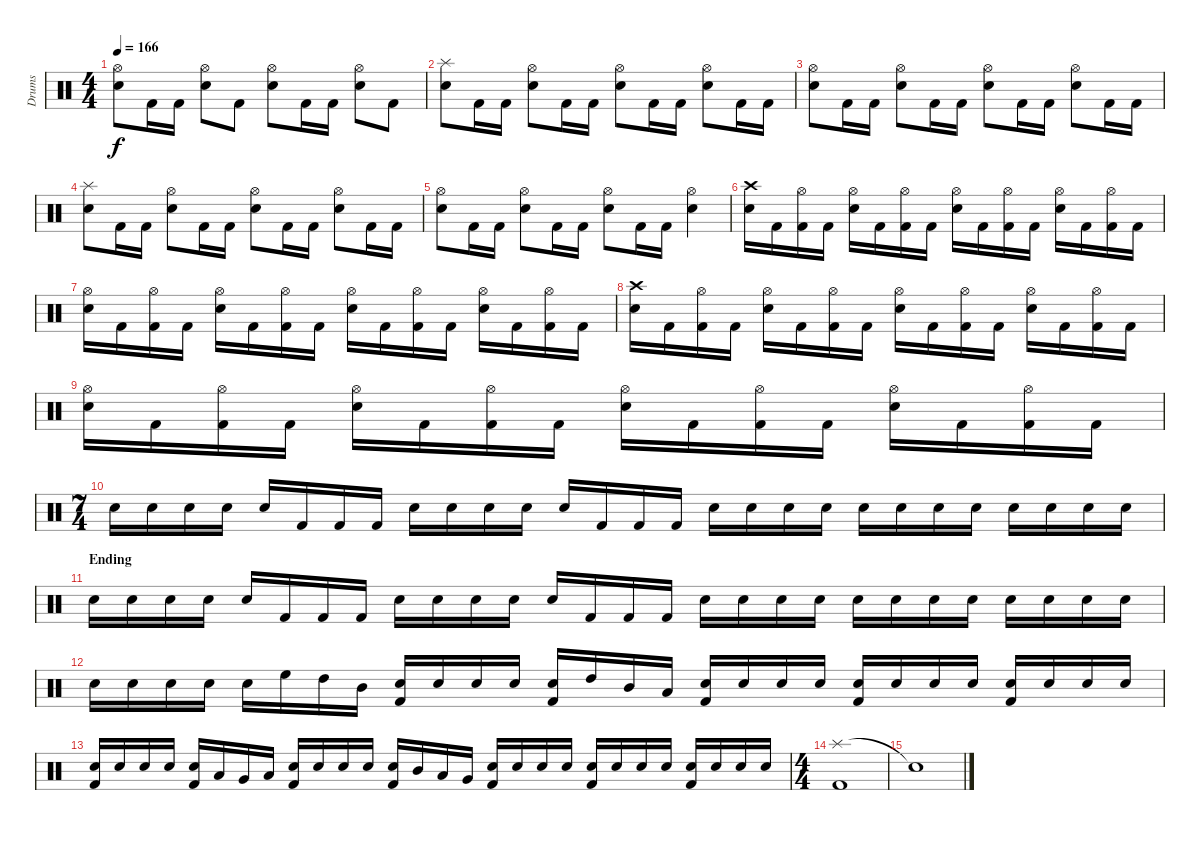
\track ("Drums" "Drums") {instrument percussion}
\staff {score}
\articulation defaults
\ts (4 4)
\tempo 166
\clef neutral
\ks c
("Hi-Hat (open)" "Snare (hit) 2").8{dy f} "Kick (hit) 2".16 "Kick (hit) 2".16 ("Hi-Hat (open)" "Snare (hit) 2").8 "Kick (hit) 2".8 ("Hi-Hat (open)" "Snare (hit) 2").8 "Kick (hit) 2".16 "Kick (hit) 2".16 ("Hi-Hat (open)" "Snare (hit) 2").8 "Kick (hit) 2".8 |
("Splash (hit)" "Snare (hit) 2").8 "Kick (hit) 2".16 "Kick (hit) 2".16 ("Hi-Hat (open)" "Snare (hit) 2").8 "Kick (hit) 2".16 "Kick (hit) 2".16 ("Hi-Hat (open)" "Snare (hit) 2").8 "Kick (hit) 2".16 "Kick (hit) 2".16 ("Hi-Hat (open)" "Snare (hit) 2").8 "Kick (hit) 2".16 "Kick (hit) 2".16 |
("Hi-Hat (open)" "Snare (hit) 2").8 "Kick (hit) 2".16 "Kick (hit) 2".16 ("Hi-Hat (open)" "Snare (hit) 2").8 "Kick (hit) 2".16 "Kick (hit) 2".16 ("Hi-Hat (open)" "Snare (hit) 2").8 "Kick (hit) 2".16 "Kick (hit) 2".16 ("Hi-Hat (open)" "Snare (hit) 2").8 "Kick (hit) 2".16 "Kick (hit) 2".16 |
("Splash (hit)" "Snare (hit) 2").8 "Kick (hit) 2".16 "Kick (hit) 2".16 ("Hi-Hat (open)" "Snare (hit) 2").8 "Kick (hit) 2".16 "Kick (hit) 2".16 ("Hi-Hat (open)" "Snare (hit) 2").8 "Kick (hit) 2".16 "Kick (hit) 2".16 ("Hi-Hat (open)" "Snare (hit) 2").8 "Kick (hit) 2".16 "Kick (hit) 2".16 |
("Hi-Hat (open)" "Snare (hit) 2").8 "Kick (hit) 2".16 "Kick (hit) 2".16 ("Hi-Hat (open)" "Snare (hit) 2").8 "Kick (hit) 2".16 "Kick (hit) 2".16 ("Hi-Hat (open)" "Snare (hit) 2").8 "Kick (hit) 2".16 "Kick (hit) 2".16 ("Hi-Hat (open)" "Snare (hit) 2").4 |
("Crash high (hit)" "Snare (hit) 2").16 "Kick (hit) 2".16 ("Hi-Hat (open)" "Kick (hit) 2").16 "Kick (hit) 2".16 ("Hi-Hat (open)" "Snare (hit) 2").16 "Kick (hit) 2".16 ("Hi-Hat (open)" "Kick (hit) 2").16 "Kick (hit) 2".16 ("Hi-Hat (open)" "Snare (hit) 2").16 "Kick (hit) 2".16 ("Hi-Hat (open)" "Kick (hit) 2").16 "Kick (hit) 2".16 ("Hi-Hat (open)" "Snare (hit) 2").16 "Kick (hit) 2".16 ("Hi-Hat (open)" "Kick (hit) 2").16 "Kick (hit) 2".16 |
("Hi-Hat (open)" "Snare (hit) 2").16 "Kick (hit) 2".16 ("Hi-Hat (open)" "Kick (hit) 2").16 "Kick (hit) 2".16 ("Hi-Hat (open)" "Snare (hit) 2").16 "Kick (hit) 2".16 ("Hi-Hat (open)" "Kick (hit) 2").16 "Kick (hit) 2".16 ("Hi-Hat (open)" "Snare (hit) 2").16 "Kick (hit) 2".16 ("Hi-Hat (open)" "Kick (hit) 2").16 "Kick (hit) 2".16 ("Hi-Hat (open)" "Snare (hit) 2").16 "Kick (hit) 2".16 ("Hi-Hat (open)" "Kick (hit) 2").16 "Kick (hit) 2".16 |
("Crash high (hit)" "Snare (hit) 2").16 "Kick (hit) 2".16 ("Hi-Hat (open)" "Kick (hit) 2").16 "Kick (hit) 2".16 ("Hi-Hat (open)" "Snare (hit) 2").16 "Kick (hit) 2".16 ("Hi-Hat (open)" "Kick (hit) 2").16 "Kick (hit) 2".16 ("Hi-Hat (open)" "Snare (hit) 2").16 "Kick (hit) 2".16 ("Hi-Hat (open)" "Kick (hit) 2").16 "Kick (hit) 2".16 ("Hi-Hat (open)" "Snare (hit) 2").16 "Kick (hit) 2".16 ("Hi-Hat (open)" "Kick (hit) 2").16 "Kick (hit) 2".16 |
("Hi-Hat (open)" "Snare (hit) 2").16 "Kick (hit) 2".16 ("Hi-Hat (open)" "Kick (hit) 2").16 "Kick (hit) 2".16 ("Hi-Hat (open)" "Snare (hit) 2").16 "Kick (hit) 2".16 ("Hi-Hat (open)" "Kick (hit) 2").16 "Kick (hit) 2".16 ("Hi-Hat (open)" "Snare (hit) 2").16 "Kick (hit) 2".16 ("Hi-Hat (open)" "Kick (hit) 2").16 "Kick (hit) 2".16 ("Hi-Hat (open)" "Snare (hit) 2").16 "Kick (hit) 2".16 ("Hi-Hat (open)" "Kick (hit) 2").16 "Kick (hit) 2".16 |
\ts (7 4)
"Snare (hit) 2".16 "Snare (hit) 2".16 "Snare (hit) 2".16 "Snare (hit) 2".16 "Snare (hit) 2".16 "Kick (hit) 2".16 "Kick (hit) 2".16 "Kick (hit) 2".16 "Snare (hit) 2".16 "Snare (hit) 2".16 "Snare (hit) 2".16 "Snare (hit) 2".16 "Snare (hit) 2".16 "Kick (hit) 2".16 "Kick (hit) 2".16 "Kick (hit) 2".16 "Snare (hit) 2".16 "Snare (hit) 2".16 "Snare (hit) 2".16 "Snare (hit) 2".16 "Snare (hit) 2".16 "Snare (hit) 2".16 "Snare (hit) 2".16 "Snare (hit) 2".16 "Snare (hit) 2".16 "Snare (hit) 2".16 "Snare (hit) 2".16 "Snare (hit) 2".16 |
\section ("" "Ending")
"Snare (hit) 2".16 "Snare (hit) 2".16 "Snare (hit) 2".16 "Snare (hit) 2".16 "Snare (hit) 2".16 "Kick (hit) 2".16 "Kick (hit) 2".16 "Kick (hit) 2".16 "Snare (hit) 2".16 "Snare (hit) 2".16 "Snare (hit) 2".16 "Snare (hit) 2".16 "Snare (hit) 2".16 "Kick (hit) 2".16 "Kick (hit) 2".16 "Kick (hit) 2".16 "Snare (hit) 2".16 "Snare (hit) 2".16 "Snare (hit) 2".16 "Snare (hit) 2".16 "Snare (hit) 2".16 "Snare (hit) 2".16 "Snare (hit) 2".16 "Snare (hit) 2".16 "Snare (hit) 2".16 "Snare (hit) 2".16 "Snare (hit) 2".16 "Snare (hit) 2".16 |
"Snare (hit) 2".16 "Snare (hit) 2".16 "Snare (hit) 2".16 "Snare (hit) 2".16 "Snare (hit) 2".16 "High Floor Tom (hit)".16 "High Tom (hit)".16 "Mid Tom (hit)".16 ("Snare (hit) 2" "Kick (hit) 2").16 "Snare (hit) 2".16 "Snare (hit) 2".16 "Snare (hit) 2".16 ("Snare (hit) 2" "Kick (hit) 2").16 "High Tom (hit)".16 "Mid Tom (hit)".16 "Low Tom (hit)".16 ("Snare (hit) 2" "Kick (hit) 2").16 "Snare (hit) 2".16 "Snare (hit) 2".16 "Snare (hit) 2".16 ("Snare (hit) 2" "Kick (hit) 2").16 "Snare (hit) 2".16 "Snare (hit) 2".16 "Snare (hit) 2".16 ("Snare (hit) 2" "Kick (hit) 2").16 "Snare (hit) 2".16 "Snare (hit) 2".16 "Snare (hit) 2".16 |
("Snare (hit) 2" "Kick (hit) 2").16 "Snare (hit) 2".16 "Snare (hit) 2".16 "Snare (hit) 2".16 ("Snare (hit) 2" "Kick (hit) 2").16 "Low Tom (hit)".16 "Very Low Tom (hit)".16 "Low Floor Tom (hit)".16 ("Snare (hit) 2" "Kick (hit) 2").16 "Snare (hit) 2".16 "Snare (hit) 2".16 "Snare (hit) 2".16 ("Snare (hit) 2" "Kick (hit) 2").16 "Mid Tom (hit)".16 "Low Tom (hit)".16 "Very Low Tom (hit)".16 ("Snare (hit) 2" "Kick (hit) 2").16 "Snare (hit) 2".16 "Snare (hit) 2".16 "Snare (hit) 2".16 ("Snare (hit) 2" "Kick (hit) 2").16 "Snare (hit) 2".16 "Snare (hit) 2".16 "Snare (hit) 2".16 ("Snare (hit) 2" "Kick (hit) 2").16 "Snare (hit) 2".16 "Snare (hit) 2".16 "Snare (hit) 2".16 |
\ts (4 4)
("Splash (hit)" "Kick (hit) 2").1 |
"Snare (hit)"{t}.1
